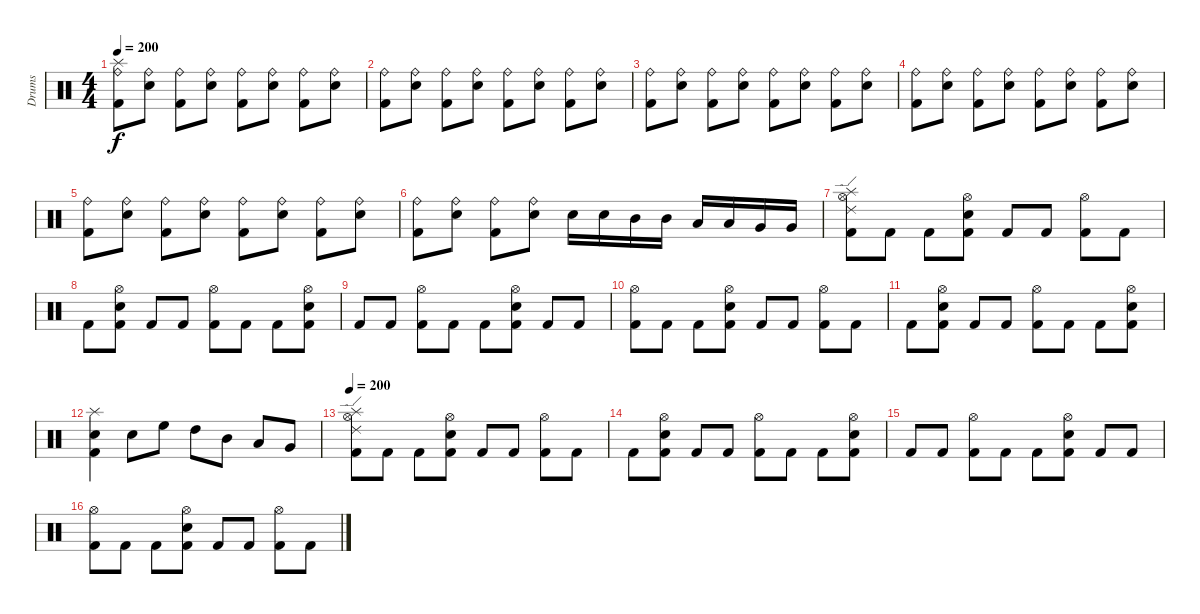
\track ("Drums" "Drums") {instrument percussion}
\staff {score}
\articulation defaults
\ts (4 4)
\tempo 200
\clef neutral
\ks c
("Ride (bell)" "Splash (hit)" "Kick (hit) 2").8{dy f} ("Ride (bell)" "Electric Snare (hit)").8 ("Ride (bell)" "Kick (hit) 2").8 ("Ride (bell)" "Electric Snare (hit)").8 ("Ride (bell)" "Kick (hit) 2").8 ("Ride (bell)" "Electric Snare (hit)").8 ("Ride (bell)" "Kick (hit) 2").8 ("Ride (bell)" "Electric Snare (hit)").8 |
("Ride (bell)" "Kick (hit) 2").8 ("Ride (bell)" "Electric Snare (hit)").8 ("Ride (bell)" "Kick (hit) 2").8 ("Ride (bell)" "Electric Snare (hit)").8 ("Ride (bell)" "Kick (hit) 2").8 ("Ride (bell)" "Electric Snare (hit)").8 ("Ride (bell)" "Kick (hit) 2").8 ("Ride (bell)" "Electric Snare (hit)").8 |
("Ride (bell)" "Kick (hit) 2").8 ("Ride (bell)" "Electric Snare (hit)").8 ("Ride (bell)" "Kick (hit) 2").8 ("Ride (bell)" "Electric Snare (hit)").8 ("Ride (bell)" "Kick (hit) 2").8 ("Ride (bell)" "Electric Snare (hit)").8 ("Ride (bell)" "Kick (hit) 2").8 ("Ride (bell)" "Electric Snare (hit)").8 |
("Ride (bell)" "Kick (hit) 2").8 ("Ride (bell)" "Electric Snare (hit)").8 ("Ride (bell)" "Kick (hit) 2").8 ("Ride (bell)" "Electric Snare (hit)").8 ("Ride (bell)" "Kick (hit) 2").8 ("Ride (bell)" "Electric Snare (hit)").8 ("Ride (bell)" "Kick (hit) 2").8 ("Ride (bell)" "Electric Snare (hit)").8 |
("Ride (bell)" "Kick (hit) 2").8 ("Ride (bell)" "Electric Snare (hit)").8 ("Ride (bell)" "Kick (hit) 2").8 ("Ride (bell)" "Electric Snare (hit)").8 ("Ride (bell)" "Kick (hit) 2").8 ("Ride (bell)" "Electric Snare (hit)").8 ("Ride (bell)" "Kick (hit) 2").8 ("Ride (bell)" "Electric Snare (hit)").8 |
("Ride (bell)" "Kick (hit) 2").8 ("Ride (bell)" "Electric Snare (hit)").8 ("Ride (bell)" "Kick (hit) 2").8 ("Ride (bell)" "Electric Snare (hit)").8 "Electric Snare (hit)".16 "Electric Snare (hit)".16 "Mid Tom (hit)".16 "Mid Tom (hit)".16 "Low Tom (hit)".16 "Low Tom (hit)".16 "Very Low Tom (hit)".16 "Very Low Tom (hit)".16 |
("Kick (hit) 2" "Ride (edge) 2" "Splash (hit)" "Hi-Hat (open)").8 "Kick (hit) 2".8 "Kick (hit) 2".8 ("Kick (hit) 2" "Electric Snare (hit)" "Hi-Hat (open)").8 "Kick (hit) 2".8 "Kick (hit) 2".8 ("Kick (hit) 2" "Hi-Hat (open)").8 "Kick (hit) 2".8 |
"Kick (hit) 2".8 ("Kick (hit) 2" "Electric Snare (hit)" "Hi-Hat (open)").8 "Kick (hit) 2".8 "Kick (hit) 2".8 ("Kick (hit) 2" "Hi-Hat (open)").8 "Kick (hit) 2".8 "Kick (hit) 2".8 ("Kick (hit) 2" "Electric Snare (hit)" "Hi-Hat (open)").8 |
"Kick (hit) 2".8 "Kick (hit) 2".8 ("Kick (hit) 2" "Hi-Hat (open)").8 "Kick (hit) 2".8 "Kick (hit) 2".8 ("Kick (hit) 2" "Electric Snare (hit)" "Hi-Hat (open)").8 "Kick (hit) 2".8 "Kick (hit) 2".8 |
("Kick (hit) 2" "Hi-Hat (open)").8 "Kick (hit) 2".8 "Kick (hit) 2".8 ("Kick (hit) 2" "Electric Snare (hit)" "Hi-Hat (open)").8 "Kick (hit) 2".8 "Kick (hit) 2".8 ("Kick (hit) 2" "Hi-Hat (open)").8 "Kick (hit) 2".8 |
"Kick (hit) 2".8 ("Kick (hit) 2" "Electric Snare (hit)" "Hi-Hat (open)").8 "Kick (hit) 2".8 "Kick (hit) 2".8 ("Kick (hit) 2" "Hi-Hat (open)").8 "Kick (hit) 2".8 "Kick (hit) 2".8 ("Kick (hit) 2" "Electric Snare (hit)" "Hi-Hat (open)").8 |
("Kick (hit) 2" "Snare (hit) 2" "Splash (hit)").4 "Snare (hit) 2".8 "High Floor Tom (hit)".8 "High Tom (hit)".8 "Mid Tom (hit)".8 "Low Tom (hit)".8 "Very Low Tom (hit)".8 |
\tempo 200
("Kick (hit) 2" "Ride (edge) 2" "Splash (hit)" "Hi-Hat (open)").8 "Kick (hit) 2".8 "Kick (hit) 2".8 ("Kick (hit) 2" "Electric Snare (hit)" "Hi-Hat (open)").8 "Kick (hit) 2".8 "Kick (hit) 2".8 ("Kick (hit) 2" "Hi-Hat (open)").8 "Kick (hit) 2".8 |
"Kick (hit) 2".8 ("Kick (hit) 2" "Electric Snare (hit)" "Hi-Hat (open)").8 "Kick (hit) 2".8 "Kick (hit) 2".8 ("Kick (hit) 2" "Hi-Hat (open)").8 "Kick (hit) 2".8 "Kick (hit) 2".8 ("Kick (hit) 2" "Electric Snare (hit)" "Hi-Hat (open)").8 |
"Kick (hit) 2".8 "Kick (hit) 2".8 ("Kick (hit) 2" "Hi-Hat (open)").8 "Kick (hit) 2".8 "Kick (hit) 2".8 ("Kick (hit) 2" "Electric Snare (hit)" "Hi-Hat (open)").8 "Kick (hit) 2".8 "Kick (hit) 2".8 |
("Kick (hit) 2" "Hi-Hat (open)").8 "Kick (hit) 2".8 "Kick (hit) 2".8 ("Kick (hit) 2" "Electric Snare (hit)" "Hi-Hat (open)").8 "Kick (hit) 2".8 "Kick (hit) 2".8 ("Kick (hit) 2" "Hi-Hat (open)").8 "Kick (hit) 2".8
